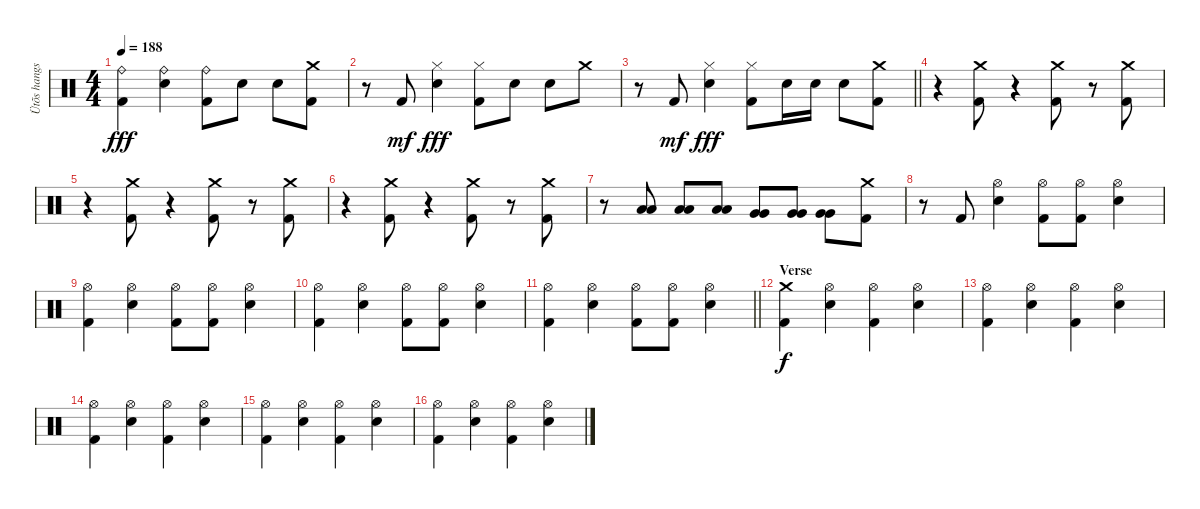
\track ("Ütõs hangszer" "Ütõs hangs") {instrument percussion}
\staff {score}
\articulation defaults
\ts (4 4)
\tempo 188
\clef neutral
\ks c
("Ride (bell)" "Kick (hit) 2").4{dy fff} ("Ride (bell)" "Electric Snare (hit)").4 ("Ride (bell)" "Kick (hit) 2").8 "Electric Snare (hit)".8 "Electric Snare (hit)".8 ("Crash medium (hit)" "Kick (hit) 2").8 |
r.8 "Kick (hit) 2".8{dy mf} ("Hi-Hat (closed)" "Electric Snare (hit)").4{dy fff} ("Hi-Hat (closed)" "Kick (hit) 2").8 "Electric Snare (hit)".8 "Electric Snare (hit)".8 "Crash medium (hit)".8 |
\barLineRight lightlight
r.8 "Kick (hit) 2".8{dy mf} ("Hi-Hat (closed)" "Electric Snare (hit)").4{dy fff} ("Hi-Hat (closed)" "Kick (hit) 2").8 "Electric Snare (hit)".16 "Electric Snare (hit)".16 "Electric Snare (hit)".8 ("Crash medium (hit)" "Kick (hit) 2").8 |
r.4 ("Crash medium (hit)" "Kick (hit) 2").8 r.4{volume 0} ("Crash medium (hit)" "Kick (hit) 2").8{volume 16} r.8{volume 0} ("Crash medium (hit)" "Kick (hit) 2").8{volume 16} |
r.4 ("Crash medium (hit)" "Kick (hit) 2").8{volume 16} r.4{volume 0} ("Crash medium (hit)" "Kick (hit) 2").8{volume 16} r.8{volume 0} ("Crash medium (hit)" "Kick (hit) 2").8{volume 16} |
r.4 ("Crash medium (hit)" "Kick (hit) 2").8{volume 16} r.4{volume 0} ("Crash medium (hit)" "Kick (hit) 2").8{volume 16} r.8{volume 0} ("Crash medium (hit)" "Kick (hit) 2").8{volume 16} |
r.8 ("Low Tom (hit)" "Low Tom (hit)").8 ("Low Tom (hit)" "Low Tom (hit)").8 ("Low Tom (hit)" "Low Tom (hit)").8 ("Very Low Tom (hit)" "Very Low Tom (hit)").8 ("Very Low Tom (hit)" "Very Low Tom (hit)").8 ("Very Low Tom (hit)" "Very Low Tom (hit)").8 ("Crash medium (hit)" "Kick (hit) 2").8 |
r.8 "Kick (hit) 2".8 ("Hi-Hat (open)" "Electric Snare (hit)").4 ("Hi-Hat (open)" "Kick (hit) 2").8 ("Hi-Hat (open)" "Kick (hit) 2").8 ("Hi-Hat (open)" "Electric Snare (hit)").4 |
("Hi-Hat (open)" "Kick (hit) 2").4 ("Hi-Hat (open)" "Electric Snare (hit)").4 ("Hi-Hat (open)" "Kick (hit) 2").8 ("Hi-Hat (open)" "Kick (hit) 2").8 ("Hi-Hat (open)" "Electric Snare (hit)").4 |
("Hi-Hat (open)" "Kick (hit) 2").4 ("Hi-Hat (open)" "Electric Snare (hit)").4 ("Hi-Hat (open)" "Kick (hit) 2").8 ("Hi-Hat (open)" "Kick (hit) 2").8 ("Hi-Hat (open)" "Electric Snare (hit)").4 |
\barLineRight lightlight
("Hi-Hat (open)" "Kick (hit) 2").4 ("Hi-Hat (open)" "Electric Snare (hit)").4 ("Hi-Hat (open)" "Kick (hit) 2").8 ("Hi-Hat (open)" "Kick (hit) 2").8 ("Hi-Hat (open)" "Electric Snare (hit)").4 |
\section ("" "Verse")
("Crash medium (hit)" "Kick (hit) 2").4{dy f} ("Hi-Hat (open)" "Electric Snare (hit)").4 ("Hi-Hat (open)" "Kick (hit) 2").4 ("Hi-Hat (open)" "Electric Snare (hit)").4 |
("Hi-Hat (open)" "Kick (hit) 2").4 ("Hi-Hat (open)" "Electric Snare (hit)").4 ("Hi-Hat (open)" "Kick (hit) 2").4 ("Hi-Hat (open)" "Electric Snare (hit)").4 |
("Hi-Hat (open)" "Kick (hit) 2").4 ("Hi-Hat (open)" "Electric Snare (hit)").4 ("Hi-Hat (open)" "Kick (hit) 2").4 ("Hi-Hat (open)" "Electric Snare (hit)").4 |
("Hi-Hat (open)" "Kick (hit) 2").4 ("Hi-Hat (open)" "Electric Snare (hit)").4 ("Hi-Hat (open)" "Kick (hit) 2").4 ("Hi-Hat (open)" "Electric Snare (hit)").4 |
("Hi-Hat (open)" "Kick (hit) 2").4 ("Hi-Hat (open)" "Electric Snare (hit)").4 ("Hi-Hat (open)" "Kick (hit) 2").4 ("Hi-Hat (open)" "Electric Snare (hit)").4
